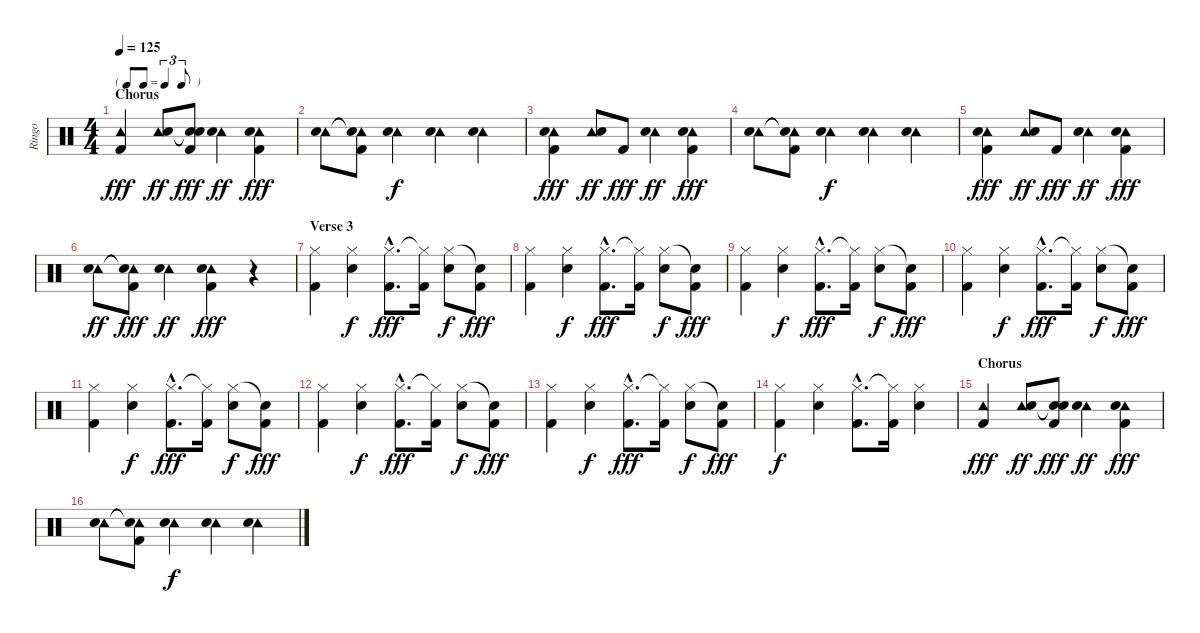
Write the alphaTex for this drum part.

\track ("Ringo" "Ringo") {instrument percussion}
\staff {score}
\articulation defaults
\ts (4 4)
\tf triplet8th
\section ("" "Chorus")
\tempo 125
\clef neutral
\ks c
("Tambourine (hit)" "Kick (hit) 2").4{dy fff} ("Tambourine (hit)" "Electric Snare (hit)").8{dy ff} ("Snare (hit)"{t} "Snare (hit)"{t} "Kick (hit) 2").8{dy fff} ("Tambourine (hit)" "Electric Snare (hit)").4{dy ff} ("Tambourine (hit)" "Electric Snare (hit)" "Kick (hit) 2").4{dy fff} |
("Tambourine (hit)" "Electric Snare (hit)").8 ("Tambourine (hit)"{t} "Electric Snare (hit)"{t} "Kick (hit) 2").8 ("Tambourine (hit)" "Electric Snare (hit)").4{dy f} ("Tambourine (hit)" "Electric Snare (hit)").4 ("Tambourine (hit)" "Electric Snare (hit)").4 |
("Tambourine (hit)" "Electric Snare (hit)" "Kick (hit) 2").4{dy fff} ("Tambourine (hit)" "Electric Snare (hit)").8{dy ff} "Kick (hit) 2".8{dy fff} ("Tambourine (hit)" "Electric Snare (hit)").4{dy ff} ("Tambourine (hit)" "Electric Snare (hit)" "Kick (hit) 2").4{dy fff} |
("Tambourine (hit)" "Electric Snare (hit)").8 ("Tambourine (hit)"{t} "Electric Snare (hit)"{t} "Kick (hit) 2").8 ("Tambourine (hit)" "Electric Snare (hit)").4{dy f} ("Tambourine (hit)" "Electric Snare (hit)").4 ("Tambourine (hit)" "Electric Snare (hit)").4 |
("Tambourine (hit)" "Electric Snare (hit)" "Kick (hit) 2").4{dy fff} ("Tambourine (hit)" "Electric Snare (hit)").8{dy ff} "Kick (hit) 2".8{dy fff} ("Tambourine (hit)" "Electric Snare (hit)").4{dy ff} ("Tambourine (hit)" "Electric Snare (hit)" "Kick (hit) 2").4{dy fff} |
("Tambourine (hit)" "Electric Snare (hit)").8{dy ff} ("Tambourine (hit)"{t} "Electric Snare (hit)"{t} "Kick (hit) 2").8{dy fff} ("Tambourine (hit)" "Electric Snare (hit)").4{dy ff} ("Tambourine (hit)" "Electric Snare (hit)" "Kick (hit) 2").4{dy fff} r.4 |
\section ("" "Verse 3")
("Hi-Hat (closed)" "Kick (hit) 2").4 ("Hi-Hat (closed)" "Electric Snare (hit)").4{dy f} ("Hi-Hat (closed)"{hac} "Kick (hit) 2"{hac}).8{d dy fff} ("Hi-Hat (closed)"{t} "Kick (hit) 2").16 ("Hi-Hat (closed)" "Electric Snare (hit)").8{dy f} ("Snare (hit)"{t} "Kick (hit) 2").8{dy fff} |
("Hi-Hat (closed)" "Kick (hit) 2").4 ("Hi-Hat (closed)" "Electric Snare (hit)").4{dy f} ("Hi-Hat (closed)"{hac} "Kick (hit) 2"{hac}).8{d dy fff} ("Hi-Hat (closed)"{t} "Kick (hit) 2").16 ("Hi-Hat (closed)" "Electric Snare (hit)").8{dy f} ("Snare (hit)"{t} "Kick (hit) 2").8{dy fff} |
("Hi-Hat (closed)" "Kick (hit) 2").4 ("Hi-Hat (closed)" "Electric Snare (hit)").4{dy f} ("Hi-Hat (closed)"{hac} "Kick (hit) 2"{hac}).8{d dy fff} ("Hi-Hat (closed)"{t} "Kick (hit) 2").16 ("Hi-Hat (closed)" "Electric Snare (hit)").8{dy f} ("Snare (hit)"{t} "Kick (hit) 2").8{dy fff} |
("Hi-Hat (closed)" "Kick (hit) 2").4 ("Hi-Hat (closed)" "Electric Snare (hit)").4{dy f} ("Hi-Hat (closed)"{hac} "Kick (hit) 2"{hac}).8{d dy fff} ("Hi-Hat (closed)"{t} "Kick (hit) 2").16 ("Hi-Hat (closed)" "Electric Snare (hit)").8{dy f} ("Snare (hit)"{t} "Kick (hit) 2").8{dy fff} |
("Hi-Hat (closed)" "Kick (hit) 2").4 ("Hi-Hat (closed)" "Electric Snare (hit)").4{dy f} ("Hi-Hat (closed)"{hac} "Kick (hit) 2"{hac}).8{d dy fff} ("Hi-Hat (closed)"{t} "Kick (hit) 2").16 ("Hi-Hat (closed)" "Electric Snare (hit)").8{dy f} ("Snare (hit)"{t} "Kick (hit) 2").8{dy fff} |
("Hi-Hat (closed)" "Kick (hit) 2").4 ("Hi-Hat (closed)" "Electric Snare (hit)").4{dy f} ("Hi-Hat (closed)"{hac} "Kick (hit) 2"{hac}).8{d dy fff} ("Hi-Hat (closed)"{t} "Kick (hit) 2").16 ("Hi-Hat (closed)" "Electric Snare (hit)").8{dy f} ("Snare (hit)"{t} "Kick (hit) 2").8{dy fff} |
("Hi-Hat (closed)" "Kick (hit) 2").4 ("Hi-Hat (closed)" "Electric Snare (hit)").4{dy f} ("Hi-Hat (closed)"{hac} "Kick (hit) 2"{hac}).8{d dy fff} ("Hi-Hat (closed)"{t} "Kick (hit) 2").16 ("Hi-Hat (closed)" "Electric Snare (hit)").8{dy f} ("Snare (hit)"{t} "Kick (hit) 2").8{dy fff} |
("Hi-Hat (closed)" "Kick (hit) 2").4{dy f} ("Hi-Hat (closed)" "Electric Snare (hit)").4 ("Hi-Hat (closed)"{hac} "Kick (hit) 2"{hac}).8{d} ("Hi-Hat (closed)"{t} "Kick (hit) 2").16 ("Hi-Hat (closed)" "Electric Snare (hit)").4 |
\section ("" "Chorus")
("Tambourine (hit)" "Kick (hit) 2").4{dy fff} ("Tambourine (hit)" "Electric Snare (hit)").8{dy ff} ("Snare (hit)"{t} "Snare (hit)"{t} "Kick (hit) 2").8{dy fff} ("Tambourine (hit)" "Electric Snare (hit)").4{dy ff} ("Tambourine (hit)" "Electric Snare (hit)" "Kick (hit) 2").4{dy fff} |
("Tambourine (hit)" "Electric Snare (hit)").8 ("Tambourine (hit)"{t} "Electric Snare (hit)"{t} "Kick (hit) 2").8 ("Tambourine (hit)" "Electric Snare (hit)").4{dy f} ("Tambourine (hit)" "Electric Snare (hit)").4 ("Tambourine (hit)" "Electric Snare (hit)").4
